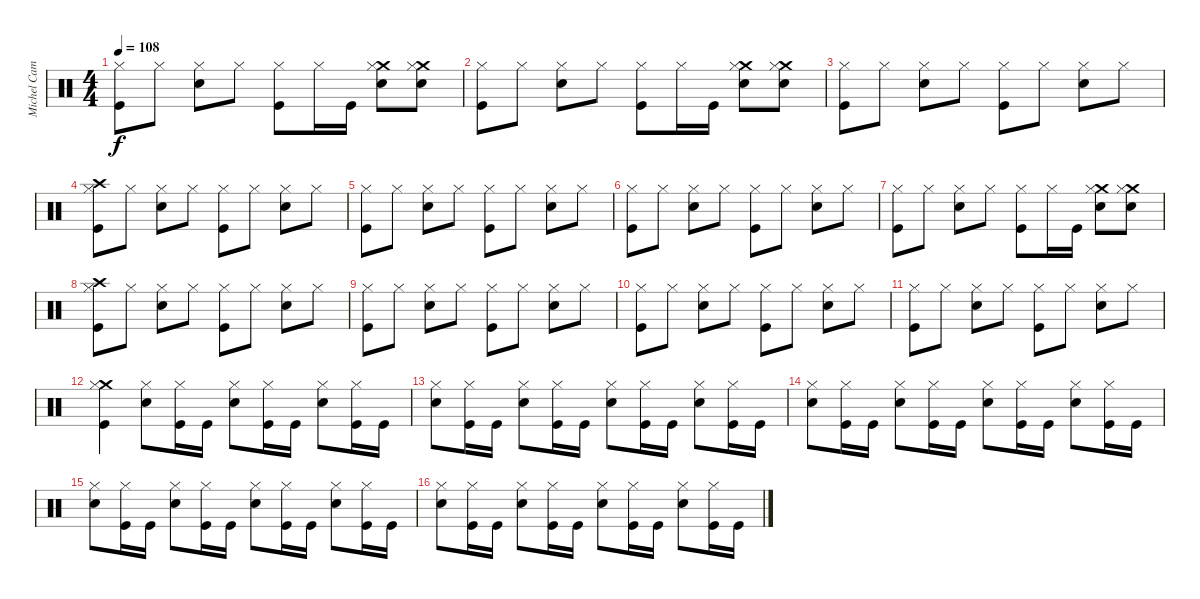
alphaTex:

\track ("Michel Camiade" "Michel Cam") {instrument percussion}
\staff {score}
\articulation defaults
\ts (4 4)
\tempo 108
\clef neutral
\ks c
("Hi-Hat (closed)" "Kick (hit)").8{dy f} "Hi-Hat (closed)".8 ("Hi-Hat (closed)" "Snare (hit) 2").8 "Hi-Hat (closed)".8 ("Hi-Hat (closed)" "Kick (hit)").8 "Hi-Hat (closed)".16 "Kick (hit)".16 ("Crash medium (hit)" "Hi-Hat (closed)" "Snare (hit) 2").8 ("Crash medium (hit)" "Hi-Hat (closed)" "Snare (hit) 2").8 |
("Hi-Hat (closed)" "Kick (hit)").8 "Hi-Hat (closed)".8 ("Hi-Hat (closed)" "Snare (hit) 2").8 "Hi-Hat (closed)".8 ("Hi-Hat (closed)" "Kick (hit)").8 "Hi-Hat (closed)".16 "Kick (hit)".16 ("Crash medium (hit)" "Hi-Hat (closed)" "Snare (hit) 2").8 ("Crash medium (hit)" "Hi-Hat (closed)" "Snare (hit) 2").8 |
("Hi-Hat (closed)" "Kick (hit)").8 "Hi-Hat (closed)".8 ("Hi-Hat (closed)" "Snare (hit) 2").8 "Hi-Hat (closed)".8 ("Hi-Hat (closed)" "Kick (hit)").8 "Hi-Hat (closed)".8 ("Hi-Hat (closed)" "Snare (hit) 2").8 "Hi-Hat (closed)".8 |
("Crash high (hit)" "Hi-Hat (closed)" "Kick (hit)").8 "Hi-Hat (closed)".8 ("Hi-Hat (closed)" "Snare (hit) 2").8 "Hi-Hat (closed)".8 ("Hi-Hat (closed)" "Kick (hit)").8 "Hi-Hat (closed)".8 ("Hi-Hat (closed)" "Snare (hit) 2").8 "Hi-Hat (closed)".8 |
("Hi-Hat (closed)" "Kick (hit)").8 "Hi-Hat (closed)".8 ("Hi-Hat (closed)" "Snare (hit) 2").8 "Hi-Hat (closed)".8 ("Hi-Hat (closed)" "Kick (hit)").8 "Hi-Hat (closed)".8 ("Hi-Hat (closed)" "Snare (hit) 2").8 "Hi-Hat (closed)".8 |
("Hi-Hat (closed)" "Kick (hit)").8 "Hi-Hat (closed)".8 ("Hi-Hat (closed)" "Snare (hit) 2").8 "Hi-Hat (closed)".8 ("Hi-Hat (closed)" "Kick (hit)").8 "Hi-Hat (closed)".8 ("Hi-Hat (closed)" "Snare (hit) 2").8 "Hi-Hat (closed)".8 |
("Hi-Hat (closed)" "Kick (hit)").8 "Hi-Hat (closed)".8 ("Hi-Hat (closed)" "Snare (hit) 2").8 "Hi-Hat (closed)".8 ("Hi-Hat (closed)" "Kick (hit)").8 "Hi-Hat (closed)".16 "Kick (hit)".16 ("Crash medium (hit)" "Hi-Hat (closed)" "Snare (hit) 2").8 ("Crash medium (hit)" "Hi-Hat (closed)" "Snare (hit) 2").8 |
("Crash high (hit)" "Hi-Hat (closed)" "Kick (hit)").8 "Hi-Hat (closed)".8 ("Hi-Hat (closed)" "Snare (hit) 2").8 "Hi-Hat (closed)".8 ("Hi-Hat (closed)" "Kick (hit)").8 "Hi-Hat (closed)".8 ("Hi-Hat (closed)" "Snare (hit) 2").8 "Hi-Hat (closed)".8 |
("Hi-Hat (closed)" "Kick (hit)").8 "Hi-Hat (closed)".8 ("Hi-Hat (closed)" "Snare (hit) 2").8 "Hi-Hat (closed)".8 ("Hi-Hat (closed)" "Kick (hit)").8 "Hi-Hat (closed)".8 ("Hi-Hat (closed)" "Snare (hit) 2").8 "Hi-Hat (closed)".8 |
("Hi-Hat (closed)" "Kick (hit)").8 "Hi-Hat (closed)".8 ("Hi-Hat (closed)" "Snare (hit) 2").8 "Hi-Hat (closed)".8 ("Hi-Hat (closed)" "Kick (hit)").8 "Hi-Hat (closed)".8 ("Hi-Hat (closed)" "Snare (hit) 2").8 "Hi-Hat (closed)".8 |
("Hi-Hat (closed)" "Kick (hit)").8 "Hi-Hat (closed)".8 ("Hi-Hat (closed)" "Snare (hit) 2").8 "Hi-Hat (closed)".8 ("Hi-Hat (closed)" "Kick (hit)").8 "Hi-Hat (closed)".8 ("Hi-Hat (closed)" "Snare (hit) 2").8 "Hi-Hat (closed)".8 |
("Crash medium (hit)" "Hi-Hat (closed)" "Kick (hit)").4 ("Hi-Hat (closed)" "Snare (hit) 2").8 ("Hi-Hat (closed)" "Kick (hit)").16 "Kick (hit)".16 ("Hi-Hat (closed)" "Snare (hit) 2").8 ("Hi-Hat (closed)" "Kick (hit)").16 "Kick (hit)".16 ("Hi-Hat (closed)" "Snare (hit) 2").8 ("Hi-Hat (closed)" "Kick (hit)").16 "Kick (hit)".16 |
("Hi-Hat (closed)" "Snare (hit) 2").8 ("Hi-Hat (closed)" "Kick (hit)").16 "Kick (hit)".16 ("Hi-Hat (closed)" "Snare (hit) 2").8 ("Hi-Hat (closed)" "Kick (hit)").16 "Kick (hit)".16 ("Hi-Hat (closed)" "Snare (hit) 2").8 ("Hi-Hat (closed)" "Kick (hit)").16 "Kick (hit)".16 ("Hi-Hat (closed)" "Snare (hit) 2").8 ("Hi-Hat (closed)" "Kick (hit)").16 "Kick (hit)".16 |
("Hi-Hat (closed)" "Snare (hit) 2").8 ("Hi-Hat (closed)" "Kick (hit)").16 "Kick (hit)".16 ("Hi-Hat (closed)" "Snare (hit) 2").8 ("Hi-Hat (closed)" "Kick (hit)").16 "Kick (hit)".16 ("Hi-Hat (closed)" "Snare (hit) 2").8 ("Hi-Hat (closed)" "Kick (hit)").16 "Kick (hit)".16 ("Hi-Hat (closed)" "Snare (hit) 2").8 ("Hi-Hat (closed)" "Kick (hit)").16 "Kick (hit)".16 |
("Hi-Hat (closed)" "Snare (hit) 2").8 ("Hi-Hat (closed)" "Kick (hit)").16 "Kick (hit)".16 ("Hi-Hat (closed)" "Snare (hit) 2").8 ("Hi-Hat (closed)" "Kick (hit)").16 "Kick (hit)".16 ("Hi-Hat (closed)" "Snare (hit) 2").8 ("Hi-Hat (closed)" "Kick (hit)").16 "Kick (hit)".16 ("Hi-Hat (closed)" "Snare (hit) 2").8 ("Hi-Hat (closed)" "Kick (hit)").16 "Kick (hit)".16 |
("Hi-Hat (closed)" "Snare (hit) 2").8 ("Hi-Hat (closed)" "Kick (hit)").16 "Kick (hit)".16 ("Hi-Hat (closed)" "Snare (hit) 2").8 ("Hi-Hat (closed)" "Kick (hit)").16 "Kick (hit)".16 ("Hi-Hat (closed)" "Snare (hit) 2").8 ("Hi-Hat (closed)" "Kick (hit)").16 "Kick (hit)".16 ("Hi-Hat (closed)" "Snare (hit) 2").8 ("Hi-Hat (closed)" "Kick (hit)").16 "Kick (hit)".16
